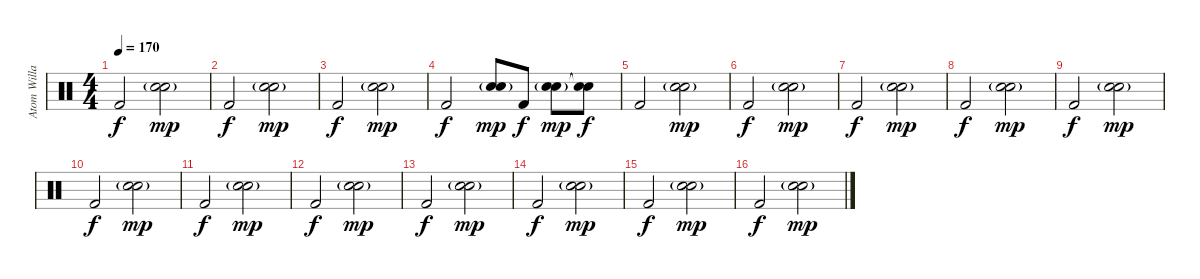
\track ("Atom Willard" "Atom Willa") {instrument percussion}
\staff {score}
\articulation defaults
\ts (4 4)
\tempo 170
\clef neutral
\ks c "Kick (hit) 2".2{dy f volume 10}
("Electric Snare (hit)"{g} "Snare (hit) 2"{g}).2{dy mp} |
"Kick (hit) 2".2{dy f volume 10} ("Electric Snare (hit)"{g} "Snare (hit) 2"{g}).2{dy mp} |
"Kick (hit) 2".2{dy f volume 12} ("Electric Snare (hit)"{g} "Snare (hit) 2"{g}).2{dy mp} |
"Kick (hit) 2".2{dy f volume 8} ("Electric Snare (hit)"{g} "Snare (hit) 2"{g}).8{dy mp} "Kick (hit) 2".8{dy f} ("Electric Snare (hit)"{g} "Snare (hit) 2"{g}).8{dy mp} ("Snare (hit)"{t} "Snare (hit)"{t}).8{dy f} |
"Kick (hit) 2".2{volume 10} ("Electric Snare (hit)"{g} "Snare (hit) 2"{g}).2{dy mp} |
"Kick (hit) 2".2{dy f volume 10} ("Electric Snare (hit)"{g} "Snare (hit) 2"{g}).2{dy mp} |
"Kick (hit) 2".2{dy f volume 12} ("Electric Snare (hit)"{g} "Snare (hit) 2"{g}).2{dy mp} |
"Kick (hit) 2".2{dy f volume 8} ("Electric Snare (hit)"{g} "Snare (hit) 2"{g}).2{dy mp} |
"Kick (hit) 2".2{dy f volume 10} ("Electric Snare (hit)"{g} "Snare (hit) 2"{g}).2{dy mp} |
"Kick (hit) 2".2{dy f volume 10} ("Electric Snare (hit)"{g} "Snare (hit) 2"{g}).2{dy mp} |
"Kick (hit) 2".2{dy f volume 12} ("Electric Snare (hit)"{g} "Snare (hit) 2"{g}).2{dy mp} |
"Kick (hit) 2".2{dy f volume 8} ("Electric Snare (hit)"{g} "Snare (hit) 2"{g}).2{dy mp} |
"Kick (hit) 2".2{dy f volume 10} ("Electric Snare (hit)"{g} "Snare (hit) 2"{g}).2{dy mp} |
"Kick (hit) 2".2{dy f volume 10} ("Electric Snare (hit)"{g} "Snare (hit) 2"{g}).2{dy mp} |
"Kick (hit) 2".2{dy f volume 12} ("Electric Snare (hit)"{g} "Snare (hit) 2"{g}).2{dy mp} |
"Kick (hit) 2".2{dy f volume 6} ("Electric Snare (hit)"{g} "Snare (hit) 2"{g}).2{dy mp}
